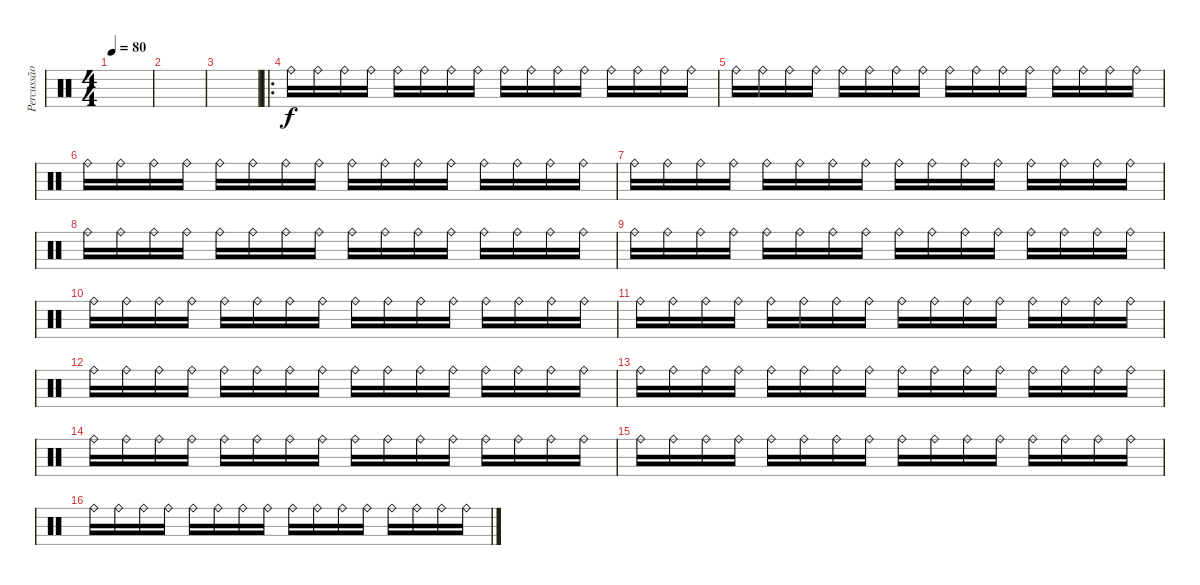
\track ("Percussão" "Percussão") {instrument percussion}
\staff {score}
\articulation defaults
\ts (4 4)
\tempo 80
\clef neutral
\ks c
|
|
|
\ro "Ride (bell)".16 "Ride (bell)".16 "Ride (bell)".16 "Ride (bell)".16 "Ride (bell)".16 "Ride (bell)".16 "Ride (bell)".16 "Ride (bell)".16 "Ride (bell)".16 "Ride (bell)".16 "Ride (bell)".16 "Ride (bell)".16 "Ride (bell)".16 "Ride (bell)".16 "Ride (bell)".16 "Ride (bell)".16
|
"Ride (bell)".16 "Ride (bell)".16 "Ride (bell)".16 "Ride (bell)".16 "Ride (bell)".16 "Ride (bell)".16 "Ride (bell)".16 "Ride (bell)".16 "Ride (bell)".16 "Ride (bell)".16 "Ride (bell)".16 "Ride (bell)".16 "Ride (bell)".16 "Ride (bell)".16 "Ride (bell)".16 "Ride (bell)".16 |
"Ride (bell)".16 "Ride (bell)".16 "Ride (bell)".16 "Ride (bell)".16 "Ride (bell)".16 "Ride (bell)".16 "Ride (bell)".16 "Ride (bell)".16 "Ride (bell)".16 "Ride (bell)".16 "Ride (bell)".16 "Ride (bell)".16 "Ride (bell)".16 "Ride (bell)".16 "Ride (bell)".16 "Ride (bell)".16 |
"Ride (bell)".16 "Ride (bell)".16 "Ride (bell)".16 "Ride (bell)".16 "Ride (bell)".16 "Ride (bell)".16 "Ride (bell)".16 "Ride (bell)".16 "Ride (bell)".16 "Ride (bell)".16 "Ride (bell)".16 "Ride (bell)".16 "Ride (bell)".16 "Ride (bell)".16 "Ride (bell)".16 "Ride (bell)".16 |
"Ride (bell)".16 "Ride (bell)".16 "Ride (bell)".16 "Ride (bell)".16 "Ride (bell)".16 "Ride (bell)".16 "Ride (bell)".16 "Ride (bell)".16 "Ride (bell)".16 "Ride (bell)".16 "Ride (bell)".16 "Ride (bell)".16 "Ride (bell)".16 "Ride (bell)".16 "Ride (bell)".16 "Ride (bell)".16 |
"Ride (bell)".16 "Ride (bell)".16 "Ride (bell)".16 "Ride (bell)".16 "Ride (bell)".16 "Ride (bell)".16 "Ride (bell)".16 "Ride (bell)".16 "Ride (bell)".16 "Ride (bell)".16 "Ride (bell)".16 "Ride (bell)".16 "Ride (bell)".16 "Ride (bell)".16 "Ride (bell)".16 "Ride (bell)".16 |
"Ride (bell)".16 "Ride (bell)".16 "Ride (bell)".16 "Ride (bell)".16 "Ride (bell)".16 "Ride (bell)".16 "Ride (bell)".16 "Ride (bell)".16 "Ride (bell)".16 "Ride (bell)".16 "Ride (bell)".16 "Ride (bell)".16 "Ride (bell)".16 "Ride (bell)".16 "Ride (bell)".16 "Ride (bell)".16 |
"Ride (bell)".16 "Ride (bell)".16 "Ride (bell)".16 "Ride (bell)".16 "Ride (bell)".16 "Ride (bell)".16 "Ride (bell)".16 "Ride (bell)".16 "Ride (bell)".16 "Ride (bell)".16 "Ride (bell)".16 "Ride (bell)".16 "Ride (bell)".16 "Ride (bell)".16 "Ride (bell)".16 "Ride (bell)".16 |
"Ride (bell)".16 "Ride (bell)".16 "Ride (bell)".16 "Ride (bell)".16 "Ride (bell)".16 "Ride (bell)".16 "Ride (bell)".16 "Ride (bell)".16 "Ride (bell)".16 "Ride (bell)".16 "Ride (bell)".16 "Ride (bell)".16 "Ride (bell)".16 "Ride (bell)".16 "Ride (bell)".16 "Ride (bell)".16 |
"Ride (bell)".16 "Ride (bell)".16 "Ride (bell)".16 "Ride (bell)".16 "Ride (bell)".16 "Ride (bell)".16 "Ride (bell)".16 "Ride (bell)".16 "Ride (bell)".16 "Ride (bell)".16 "Ride (bell)".16 "Ride (bell)".16 "Ride (bell)".16 "Ride (bell)".16 "Ride (bell)".16 "Ride (bell)".16 |
"Ride (bell)".16 "Ride (bell)".16 "Ride (bell)".16 "Ride (bell)".16 "Ride (bell)".16 "Ride (bell)".16 "Ride (bell)".16 "Ride (bell)".16 "Ride (bell)".16 "Ride (bell)".16 "Ride (bell)".16 "Ride (bell)".16 "Ride (bell)".16 "Ride (bell)".16 "Ride (bell)".16 "Ride (bell)".16 |
"Ride (bell)".16 "Ride (bell)".16 "Ride (bell)".16 "Ride (bell)".16 "Ride (bell)".16 "Ride (bell)".16 "Ride (bell)".16 "Ride (bell)".16 "Ride (bell)".16 "Ride (bell)".16 "Ride (bell)".16 "Ride (bell)".16 "Ride (bell)".16 "Ride (bell)".16 "Ride (bell)".16 "Ride (bell)".16 |
"Ride (bell)".16 "Ride (bell)".16 "Ride (bell)".16 "Ride (bell)".16 "Ride (bell)".16 "Ride (bell)".16 "Ride (bell)".16 "Ride (bell)".16 "Ride (bell)".16 "Ride (bell)".16 "Ride (bell)".16 "Ride (bell)".16 "Ride (bell)".16 "Ride (bell)".16 "Ride (bell)".16 "Ride (bell)".16
